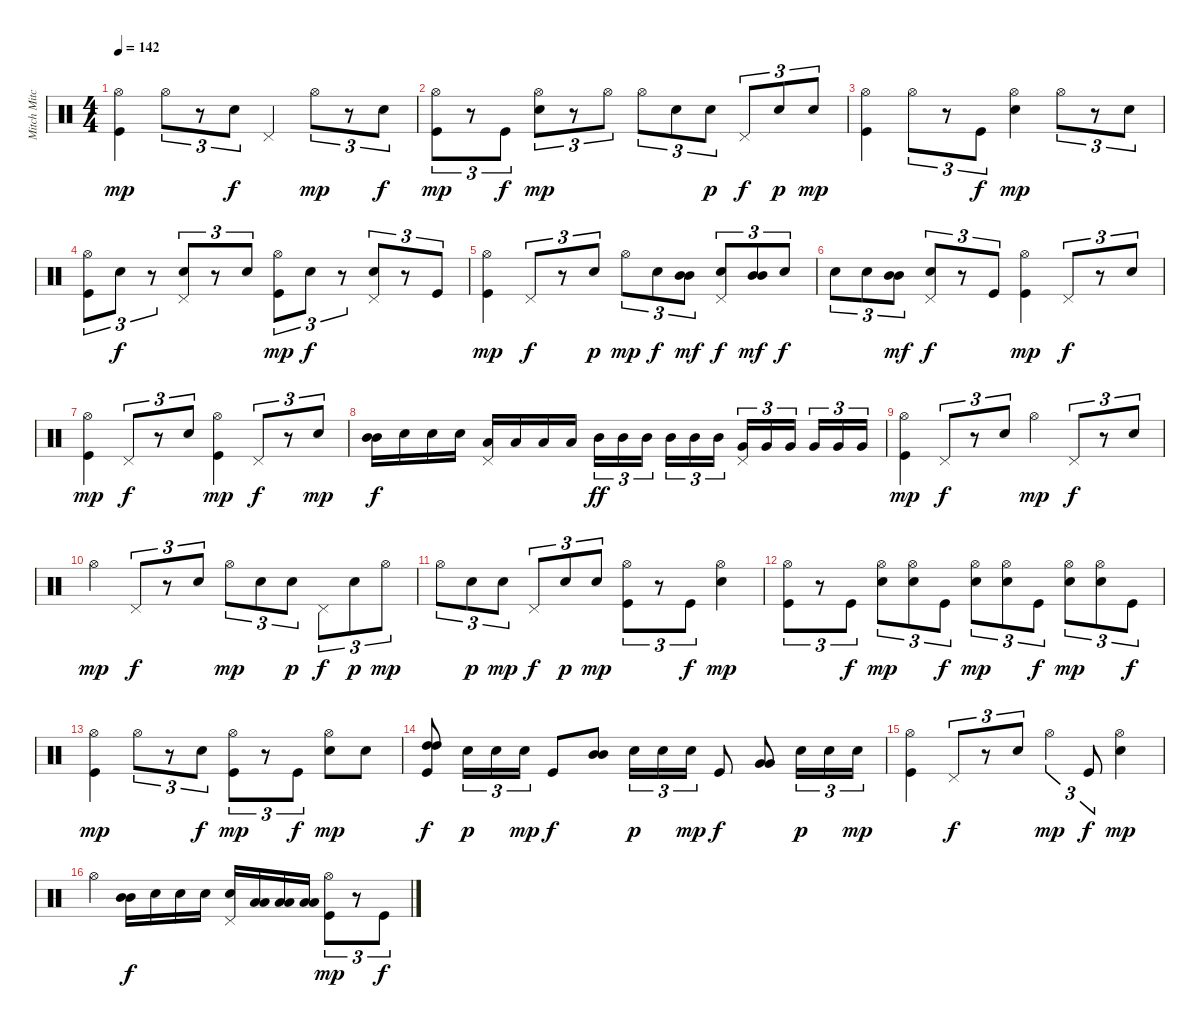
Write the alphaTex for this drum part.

\track ("Mitch Mitchell" "Mitch Mitc") {instrument percussion}
\staff {score}
\articulation defaults
\ts (4 4)
\tempo 142
\clef neutral
\ks c
("Hi-Hat (open)" "Kick (hit)").4{dy mp} "Hi-Hat (open)".8{tu (3 2)} r.8{tu (3 2)} "Electric Snare (hit)".8{tu (3 2) dy f} "Pedal Hi-Hat (hit)".4 "Hi-Hat (open)".8{tu (3 2) dy mp} r.8{tu (3 2)} "Electric Snare (hit)".8{tu (3 2) dy f} |
("Hi-Hat (open)" "Kick (hit)").8{tu (3 2) dy mp} r.8{tu (3 2)} "Kick (hit)".8{tu (3 2) dy f} ("Hi-Hat (open)" "Electric Snare (hit)").8{tu (3 2) dy mp} r.8{tu (3 2)} "Hi-Hat (open)".8{tu (3 2)} "Hi-Hat (open)".8{tu (3 2)} "Electric Snare (hit)".8{tu (3 2)} "Electric Snare (hit)".8{tu (3 2) dy p} "Pedal Hi-Hat (hit)".8{tu (3 2) dy f} "Electric Snare (hit)".8{tu (3 2) dy p} "Electric Snare (hit)".8{tu (3 2) dy mp} |
("Hi-Hat (open)" "Kick (hit)").4 "Hi-Hat (open)".8{tu (3 2)} r.8{tu (3 2)} "Kick (hit)".8{tu (3 2) dy f} ("Hi-Hat (open)" "Electric Snare (hit)").4{dy mp} "Hi-Hat (open)".8{tu (3 2)} r.8{tu (3 2)} "Electric Snare (hit)".8{tu (3 2)} |
("Hi-Hat (open)" "Kick (hit)").8{tu (3 2)} "Electric Snare (hit)".8{tu (3 2) dy f} r.8{tu (3 2)} ("Pedal Hi-Hat (hit)" "Electric Snare (hit)").8{tu (3 2)} r.8{tu (3 2)} "Electric Snare (hit)".8{tu (3 2)} ("Hi-Hat (open)" "Kick (hit)").8{tu (3 2) dy mp} "Electric Snare (hit)".8{tu (3 2) dy f} r.8{tu (3 2)} ("Pedal Hi-Hat (hit)" "Electric Snare (hit)").8{tu (3 2)} r.8{tu (3 2)} "Kick (hit)".8{tu (3 2)} |
("Hi-Hat (open)" "Kick (hit)").4{dy mp} "Pedal Hi-Hat (hit)".8{tu (3 2) dy f} r.8{tu (3 2)} "Electric Snare (hit)".8{tu (3 2) dy p} "Hi-Hat (open)".8{tu (3 2) dy mp} "Electric Snare (hit)".8{tu (3 2) dy f} ("Mid Tom (hit)" "Mid Tom (hit)").8{tu (3 2) dy mf} ("Pedal Hi-Hat (hit)" "Electric Snare (hit)").8{tu (3 2) dy f} ("Mid Tom (hit)" "Mid Tom (hit)").8{tu (3 2) dy mf} "Electric Snare (hit)".8{tu (3 2) dy f} |
"Electric Snare (hit)".8{tu (3 2)} "Electric Snare (hit)".8{tu (3 2)} ("Mid Tom (hit)" "Mid Tom (hit)").8{tu (3 2) dy mf} ("Pedal Hi-Hat (hit)" "Electric Snare (hit)").8{tu (3 2) dy f} r.8{tu (3 2)} "Kick (hit)".8{tu (3 2)} ("Hi-Hat (open)" "Kick (hit)").4{dy mp} "Pedal Hi-Hat (hit)".8{tu (3 2) dy f} r.8{tu (3 2)} "Electric Snare (hit)".8{tu (3 2)} |
("Hi-Hat (open)" "Kick (hit)").4{dy mp} "Pedal Hi-Hat (hit)".8{tu (3 2) dy f} r.8{tu (3 2)} "Electric Snare (hit)".8{tu (3 2)} ("Hi-Hat (open)" "Kick (hit)").4{dy mp} "Pedal Hi-Hat (hit)".8{tu (3 2) dy f} r.8{tu (3 2)} "Electric Snare (hit)".8{tu (3 2) dy mp} |
("Mid Tom (hit)" "Mid Tom (hit)").16{dy f} "Electric Snare (hit)".16 "Electric Snare (hit)".16 "Electric Snare (hit)".16 ("Pedal Hi-Hat (hit)" "Low Tom (hit)").16 "Low Tom (hit)".16 "Low Tom (hit)".16 "Low Tom (hit)".16 "Mid Tom (hit)".16{tu (3 2) dy ff} "Mid Tom (hit)".16{tu (3 2)} "Mid Tom (hit)".16{tu (3 2)} "Mid Tom (hit)".16{tu (3 2)} "Mid Tom (hit)".16{tu (3 2)} "Mid Tom (hit)".16{tu (3 2)} ("Pedal Hi-Hat (hit)" "Very Low Tom (hit)").16{tu (3 2)} "Very Low Tom (hit)".16{tu (3 2)} "Very Low Tom (hit)".16{tu (3 2)} "Very Low Tom (hit)".16{tu (3 2)} "Very Low Tom (hit)".16{tu (3 2)} "Very Low Tom (hit)".16{tu (3 2)} |
("Hi-Hat (open)" "Kick (hit)").4{dy mp} "Pedal Hi-Hat (hit)".8{tu (3 2) dy f} r.8{tu (3 2)} "Electric Snare (hit)".8{tu (3 2)} "Hi-Hat (open)".4{dy mp} "Pedal Hi-Hat (hit)".8{tu (3 2) dy f} r.8{tu (3 2)} "Electric Snare (hit)".8{tu (3 2)} |
"Hi-Hat (open)".4{dy mp} "Pedal Hi-Hat (hit)".8{tu (3 2) dy f} r.8{tu (3 2)} "Electric Snare (hit)".8{tu (3 2)} "Hi-Hat (open)".8{tu (3 2) dy mp} "Electric Snare (hit)".8{tu (3 2)} "Electric Snare (hit)".8{tu (3 2) dy p} "Pedal Hi-Hat (hit)".8{tu (3 2) dy f} "Electric Snare (hit)".8{tu (3 2) dy p} "Hi-Hat (open)".8{tu (3 2) dy mp} |
"Hi-Hat (open)".8{tu (3 2)} "Electric Snare (hit)".8{tu (3 2) dy p} "Electric Snare (hit)".8{tu (3 2) dy mp} "Pedal Hi-Hat (hit)".8{tu (3 2) dy f} "Electric Snare (hit)".8{tu (3 2) dy p} "Electric Snare (hit)".8{tu (3 2) dy mp} ("Hi-Hat (open)" "Kick (hit)").8{tu (3 2)} r.8{tu (3 2)} "Kick (hit)".8{tu (3 2) dy f} ("Hi-Hat (open)" "Electric Snare (hit)").4{dy mp} |
("Hi-Hat (open)" "Kick (hit)").8{tu (3 2)} r.8{tu (3 2)} "Kick (hit)".8{tu (3 2) dy f} ("Hi-Hat (open)" "Electric Snare (hit)").8{tu (3 2) dy mp} ("Hi-Hat (open)" "Electric Snare (hit)").8{tu (3 2)} "Kick (hit)".8{tu (3 2) dy f} ("Hi-Hat (open)" "Electric Snare (hit)").8{tu (3 2) dy mp} ("Hi-Hat (open)" "Electric Snare (hit)").8{tu (3 2)} "Kick (hit)".8{tu (3 2) dy f} ("Hi-Hat (open)" "Electric Snare (hit)").8{tu (3 2) dy mp} ("Hi-Hat (open)" "Electric Snare (hit)").8{tu (3 2)} "Kick (hit)".8{tu (3 2) dy f} |
("Hi-Hat (open)" "Kick (hit)").4{dy mp} "Hi-Hat (open)".8{tu (3 2)} r.8{tu (3 2)} "Electric Snare (hit)".8{tu (3 2) dy f} ("Hi-Hat (open)" "Kick (hit)").8{tu (3 2) dy mp} r.8{tu (3 2)} "Kick (hit)".8{tu (3 2) dy f} ("Hi-Hat (open)" "Electric Snare (hit)").8{dy mp} "Electric Snare (hit)".8 |
("High Tom (hit)" "High Tom (hit)" "Kick (hit)").8{dy f} "Electric Snare (hit)".16{tu (3 2) dy p} "Electric Snare (hit)".16{tu (3 2)} "Electric Snare (hit)".16{tu (3 2) dy mp} "Kick (hit)".8{dy f} ("Mid Tom (hit)" "Mid Tom (hit)").8 "Electric Snare (hit)".16{tu (3 2) dy p} "Electric Snare (hit)".16{tu (3 2)} "Electric Snare (hit)".16{tu (3 2) dy mp} "Kick (hit)".8{dy f} ("Very Low Tom (hit)" "Very Low Tom (hit)").8 "Electric Snare (hit)".16{tu (3 2) dy p} "Electric Snare (hit)".16{tu (3 2)} "Electric Snare (hit)".16{tu (3 2) dy mp} |
("Hi-Hat (open)" "Kick (hit)").4 "Pedal Hi-Hat (hit)".8{tu (3 2) dy f} r.8{tu (3 2)} "Electric Snare (hit)".8{tu (3 2)} "Hi-Hat (open)".4{tu (3 2) dy mp} "Kick (hit)".8{tu (3 2) dy f} ("Hi-Hat (open)" "Electric Snare (hit)").4{dy mp} |
"Hi-Hat (open)".4 ("Mid Tom (hit)" "Mid Tom (hit)").16{dy f} "Electric Snare (hit)".16 "Electric Snare (hit)".16 "Electric Snare (hit)".16 ("Pedal Hi-Hat (hit)" "Electric Snare (hit)").16 ("Low Tom (hit)" "Low Tom (hit)").16 ("Low Tom (hit)" "Low Tom (hit)").16 ("Low Tom (hit)" "Low Tom (hit)").16 ("Hi-Hat (open)" "Kick (hit)").8{tu (3 2) dy mp} r.8{tu (3 2)} "Kick (hit)".8{tu (3 2) dy f}
